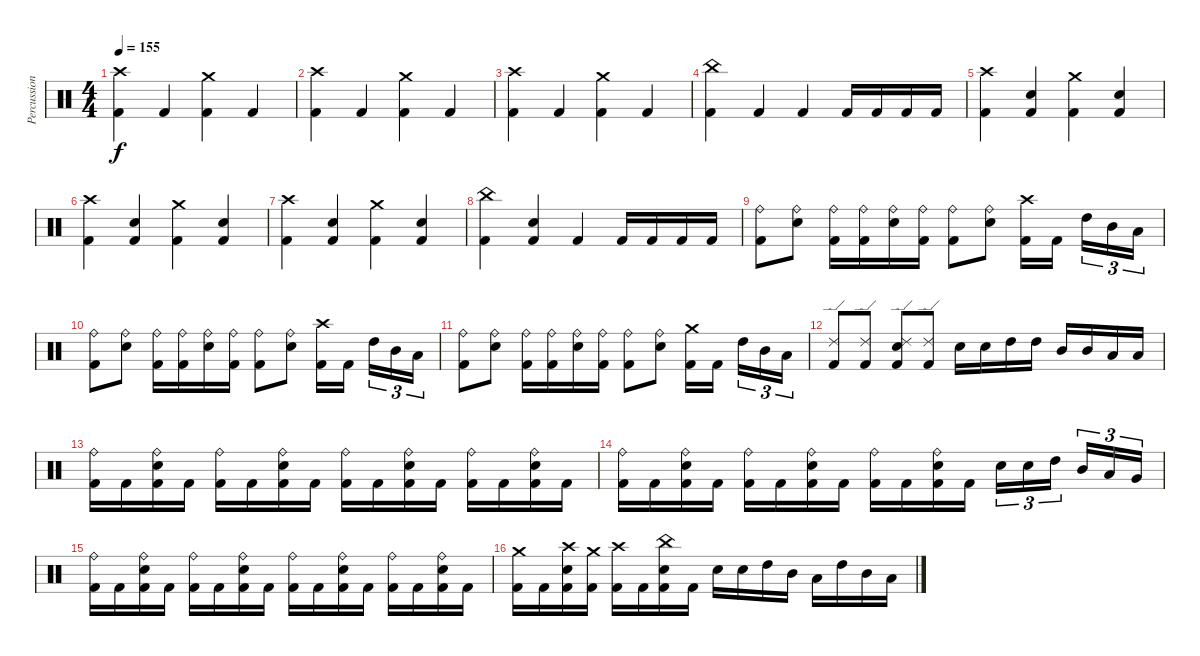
\track ("Percussions" "Percussion") {instrument percussion}
\staff {score}
\articulation defaults
\ts (4 4)
\tempo 155
\clef neutral
\ks c
("Crash high (hit)" "Kick (hit) 2").4{dy f} "Kick (hit) 2".4 ("Crash medium (hit)" "Kick (hit) 2").4 "Kick (hit) 2".4 |
("Crash high (hit)" "Kick (hit) 2").4 "Kick (hit) 2".4 ("Crash medium (hit)" "Kick (hit) 2").4 "Kick (hit) 2".4 |
("Crash high (hit)" "Kick (hit) 2").4 "Kick (hit) 2".4 ("Crash medium (hit)" "Kick (hit) 2").4 "Kick (hit) 2".4 |
("China (hit)" "Kick (hit) 2").4 "Kick (hit) 2".4 "Kick (hit) 2".4 "Kick (hit) 2".16 "Kick (hit) 2".16 "Kick (hit) 2".16 "Kick (hit) 2".16 |
("Crash high (hit)" "Kick (hit) 2").4 ("Electric Snare (hit)" "Kick (hit) 2").4 ("Crash medium (hit)" "Kick (hit) 2").4 ("Electric Snare (hit)" "Kick (hit) 2").4 |
("Crash high (hit)" "Kick (hit) 2").4 ("Electric Snare (hit)" "Kick (hit) 2").4 ("Crash medium (hit)" "Kick (hit) 2").4 ("Electric Snare (hit)" "Kick (hit) 2").4 |
("Crash high (hit)" "Kick (hit) 2").4 ("Electric Snare (hit)" "Kick (hit) 2").4 ("Crash medium (hit)" "Kick (hit) 2").4 ("Electric Snare (hit)" "Kick (hit) 2").4 |
("China (hit)" "Kick (hit) 2").4 ("Electric Snare (hit)" "Kick (hit) 2").4 "Kick (hit) 2".4 "Kick (hit) 2".16 "Kick (hit) 2".16 "Kick (hit) 2".16 "Kick (hit) 2".16 |
("Ride (bell)" "Kick (hit) 2").8 ("Ride (bell)" "Electric Snare (hit)").8 ("Ride (bell)" "Kick (hit) 2").16 ("Ride (bell)" "Kick (hit) 2").16 ("Ride (bell)" "Electric Snare (hit)").16 ("Ride (bell)" "Kick (hit) 2").16 ("Ride (bell)" "Kick (hit) 2").8 ("Ride (bell)" "Electric Snare (hit)").8 ("Crash high (hit)" "Kick (hit) 2").16 "Kick (hit) 2".16 "High Tom (hit)".16{tu (3 2)} "Mid Tom (hit)".16{tu (3 2)} "Low Tom (hit)".16{tu (3 2)} |
("Ride (bell)" "Kick (hit) 2").8 ("Ride (bell)" "Electric Snare (hit)").8 ("Ride (bell)" "Kick (hit) 2").16 ("Ride (bell)" "Kick (hit) 2").16 ("Ride (bell)" "Electric Snare (hit)").16 ("Ride (bell)" "Kick (hit) 2").16 ("Ride (bell)" "Kick (hit) 2").8 ("Ride (bell)" "Electric Snare (hit)").8 ("Crash high (hit)" "Kick (hit) 2").16 "Kick (hit) 2".16 "High Tom (hit)".16{tu (3 2)} "Mid Tom (hit)".16{tu (3 2)} "Low Tom (hit)".16{tu (3 2)} |
("Ride (bell)" "Kick (hit) 2").8 ("Ride (bell)" "Electric Snare (hit)").8 ("Ride (bell)" "Kick (hit) 2").16 ("Ride (bell)" "Kick (hit) 2").16 ("Ride (bell)" "Electric Snare (hit)").16 ("Ride (bell)" "Kick (hit) 2").16 ("Ride (bell)" "Kick (hit) 2").8 ("Ride (bell)" "Electric Snare (hit)").8 ("Crash medium (hit)" "Kick (hit) 2").16 "Kick (hit) 2".16 "High Tom (hit)".16{tu (3 2)} "Mid Tom (hit)".16{tu (3 2)} "Low Tom (hit)".16{tu (3 2)} |
("Ride (edge) 2" "Kick (hit) 2").8 ("Ride (edge) 2" "Kick (hit) 2").8 ("Ride (edge) 2" "Electric Snare (hit)" "Kick (hit) 2").8 ("Ride (edge) 2" "Kick (hit) 2").8 "Electric Snare (hit)".16 "Electric Snare (hit)".16 "High Tom (hit)".16 "High Tom (hit)".16 "Mid Tom (hit)".16 "Mid Tom (hit)".16 "Low Tom (hit)".16 "Low Tom (hit)".16 |
("Ride (bell)" "Kick (hit) 2").16 "Kick (hit) 2".16 ("Ride (bell)" "Electric Snare (hit)" "Kick (hit) 2").16 "Kick (hit) 2".16 ("Ride (bell)" "Kick (hit) 2").16 "Kick (hit) 2".16 ("Ride (bell)" "Electric Snare (hit)" "Kick (hit) 2").16 "Kick (hit) 2".16 ("Ride (bell)" "Kick (hit) 2").16 "Kick (hit) 2".16 ("Ride (bell)" "Electric Snare (hit)" "Kick (hit) 2").16 "Kick (hit) 2".16 ("Ride (bell)" "Kick (hit) 2").16 "Kick (hit) 2".16 ("Ride (bell)" "Electric Snare (hit)" "Kick (hit) 2").16 "Kick (hit) 2".16 |
("Ride (bell)" "Kick (hit) 2").16 "Kick (hit) 2".16 ("Ride (bell)" "Electric Snare (hit)" "Kick (hit) 2").16 "Kick (hit) 2".16 ("Ride (bell)" "Kick (hit) 2").16 "Kick (hit) 2".16 ("Ride (bell)" "Electric Snare (hit)" "Kick (hit) 2").16 "Kick (hit) 2".16 ("Ride (bell)" "Kick (hit) 2").16 "Kick (hit) 2".16 ("Ride (bell)" "Electric Snare (hit)" "Kick (hit) 2").16 "Kick (hit) 2".16 "Electric Snare (hit)".16{tu (3 2)} "Electric Snare (hit)".16{tu (3 2)} "High Tom (hit)".16{tu (3 2)} "Mid Tom (hit)".16{tu (3 2)} "Low Tom (hit)".16{tu (3 2)} "Very Low Tom (hit)".16{tu (3 2)} |
("Ride (bell)" "Kick (hit) 2").16 "Kick (hit) 2".16 ("Ride (bell)" "Electric Snare (hit)" "Kick (hit) 2").16 "Kick (hit) 2".16 ("Ride (bell)" "Kick (hit) 2").16 "Kick (hit) 2".16 ("Ride (bell)" "Electric Snare (hit)" "Kick (hit) 2").16 "Kick (hit) 2".16 ("Ride (bell)" "Kick (hit) 2").16 "Kick (hit) 2".16 ("Ride (bell)" "Electric Snare (hit)" "Kick (hit) 2").16 "Kick (hit) 2".16 ("Ride (bell)" "Kick (hit) 2").16 "Kick (hit) 2".16 ("Ride (bell)" "Electric Snare (hit)" "Kick (hit) 2").16 "Kick (hit) 2".16 |
("Crash medium (hit)" "Kick (hit) 2").16 "Kick (hit) 2".16 ("Crash high (hit)" "Electric Snare (hit)" "Kick (hit) 2").16 ("Crash medium (hit)" "Kick (hit) 2").16 ("Crash high (hit)" "Kick (hit) 2").16 "Kick (hit) 2".16 ("China (hit)" "Electric Snare (hit)" "Kick (hit) 2").16 "Kick (hit) 2".16 "Electric Snare (hit)".16 "Electric Snare (hit)".16 "High Tom (hit)".16 "Mid Tom (hit)".16 "Low Tom (hit)".16 "High Tom (hit)".16 "Mid Tom (hit)".16 "Low Tom (hit)".16
